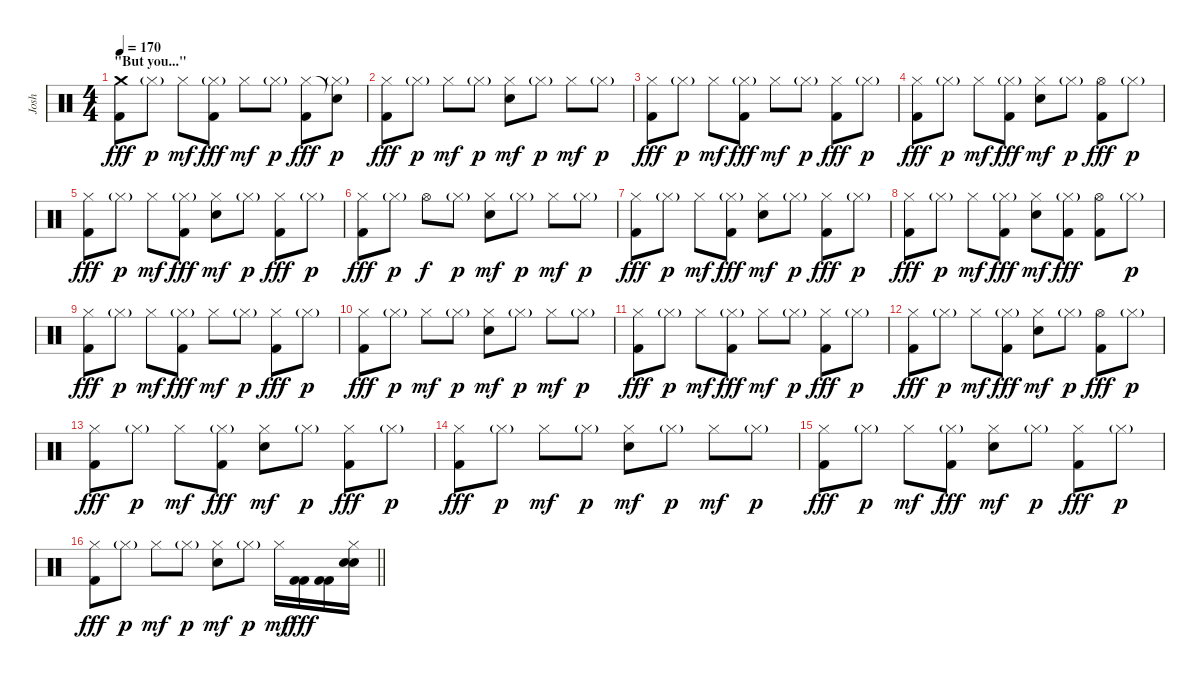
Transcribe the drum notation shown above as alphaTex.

\track ("Josh" "Josh") {instrument percussion}
\staff {score}
\articulation defaults
\ts (4 4)
\section ("" "\"But you...\"")
\tempo 170
\clef neutral
\ks c
("Crash medium (hit)" "Kick (hit) 2").8{dy fff} "Hi-Hat (closed)"{g}.8{dy p} "Hi-Hat (closed)".8{dy mf} ("Hi-Hat (closed)"{g} "Kick (hit) 2").8{dy fff} "Hi-Hat (closed)".8{dy mf} "Hi-Hat (closed)"{g}.8{dy p} ("Hi-Hat (closed)" "Kick (hit) 2").8{dy fff} ("Snare (hit)"{t} "Hi-Hat (closed)"{g}).8{dy p} |
("Hi-Hat (closed)" "Kick (hit) 2").8{dy fff} "Hi-Hat (closed)"{g}.8{dy p} "Hi-Hat (closed)".8{dy mf} "Hi-Hat (closed)"{g}.8{dy p} ("Hi-Hat (closed)" "Electric Snare (hit)").8{dy mf} "Hi-Hat (closed)"{g}.8{dy p} "Hi-Hat (closed)".8{dy mf} "Hi-Hat (closed)"{g}.8{dy p} |
("Hi-Hat (closed)" "Kick (hit) 2").8{dy fff} "Hi-Hat (closed)"{g}.8{dy p} "Hi-Hat (closed)".8{dy mf} ("Hi-Hat (closed)"{g} "Kick (hit) 2").8{dy fff} "Hi-Hat (closed)".8{dy mf} "Hi-Hat (closed)"{g}.8{dy p} ("Hi-Hat (closed)" "Kick (hit) 2").8{dy fff} "Hi-Hat (closed)"{g}.8{dy p} |
("Hi-Hat (closed)" "Kick (hit) 2").8{dy fff} "Hi-Hat (closed)"{g}.8{dy p} "Hi-Hat (closed)".8{dy mf} ("Hi-Hat (closed)"{g} "Kick (hit) 2").8{dy fff} ("Hi-Hat (closed)" "Electric Snare (hit)").8{dy mf} "Hi-Hat (closed)"{g}.8{dy p} ("Hi-Hat (open)" "Kick (hit) 2").8{dy fff} "Hi-Hat (closed)"{g}.8{dy p} |
("Hi-Hat (closed)" "Kick (hit) 2").8{dy fff} "Hi-Hat (closed)"{g}.8{dy p} "Hi-Hat (closed)".8{dy mf} ("Hi-Hat (closed)"{g} "Kick (hit) 2").8{dy fff} ("Hi-Hat (closed)" "Electric Snare (hit)").8{dy mf} "Hi-Hat (closed)"{g}.8{dy p} ("Hi-Hat (closed)" "Kick (hit) 2").8{dy fff} "Hi-Hat (closed)"{g}.8{dy p} |
("Hi-Hat (closed)" "Kick (hit) 2").8{dy fff} "Hi-Hat (closed)"{g}.8{dy p} "Hi-Hat (open)".8{dy f} "Hi-Hat (closed)"{g}.8{dy p} ("Hi-Hat (closed)" "Electric Snare (hit)").8{dy mf} "Hi-Hat (closed)"{g}.8{dy p} "Hi-Hat (closed)".8{dy mf} "Hi-Hat (closed)"{g}.8{dy p} |
("Hi-Hat (closed)" "Kick (hit) 2").8{dy fff} "Hi-Hat (closed)"{g}.8{dy p} "Hi-Hat (closed)".8{dy mf} ("Hi-Hat (closed)"{g} "Kick (hit) 2").8{dy fff} ("Hi-Hat (closed)" "Electric Snare (hit)").8{dy mf} "Hi-Hat (closed)"{g}.8{dy p} ("Hi-Hat (closed)" "Kick (hit) 2").8{dy fff} "Hi-Hat (closed)"{g}.8{dy p} |
("Hi-Hat (closed)" "Kick (hit) 2").8{dy fff} "Hi-Hat (closed)"{g}.8{dy p} "Hi-Hat (closed)".8{dy mf} ("Hi-Hat (closed)"{g} "Kick (hit) 2").8{dy fff} ("Hi-Hat (closed)" "Electric Snare (hit)").8{dy mf} ("Hi-Hat (closed)"{g} "Kick (hit) 2").8{dy fff} ("Hi-Hat (open)" "Kick (hit) 2").8 "Hi-Hat (closed)"{g}.8{dy p} |
("Hi-Hat (closed)" "Kick (hit) 2").8{dy fff} "Hi-Hat (closed)"{g}.8{dy p} "Hi-Hat (closed)".8{dy mf} ("Hi-Hat (closed)"{g} "Kick (hit) 2").8{dy fff} "Hi-Hat (closed)".8{dy mf} "Hi-Hat (closed)"{g}.8{dy p} ("Hi-Hat (closed)" "Kick (hit) 2").8{dy fff} "Hi-Hat (closed)"{g}.8{dy p} |
("Hi-Hat (closed)" "Kick (hit) 2").8{dy fff} "Hi-Hat (closed)"{g}.8{dy p} "Hi-Hat (closed)".8{dy mf} "Hi-Hat (closed)"{g}.8{dy p} ("Hi-Hat (closed)" "Electric Snare (hit)").8{dy mf} "Hi-Hat (closed)"{g}.8{dy p} "Hi-Hat (closed)".8{dy mf} "Hi-Hat (closed)"{g}.8{dy p} |
("Hi-Hat (closed)" "Kick (hit) 2").8{dy fff} "Hi-Hat (closed)"{g}.8{dy p} "Hi-Hat (closed)".8{dy mf} ("Hi-Hat (closed)"{g} "Kick (hit) 2").8{dy fff} "Hi-Hat (closed)".8{dy mf} "Hi-Hat (closed)"{g}.8{dy p} ("Hi-Hat (closed)" "Kick (hit) 2").8{dy fff} "Hi-Hat (closed)"{g}.8{dy p} |
("Hi-Hat (closed)" "Kick (hit) 2").8{dy fff} "Hi-Hat (closed)"{g}.8{dy p} "Hi-Hat (closed)".8{dy mf} ("Hi-Hat (closed)"{g} "Kick (hit) 2").8{dy fff} ("Hi-Hat (closed)" "Electric Snare (hit)").8{dy mf} "Hi-Hat (closed)"{g}.8{dy p} ("Hi-Hat (open)" "Kick (hit) 2").8{dy fff} "Hi-Hat (closed)"{g}.8{dy p} |
("Hi-Hat (closed)" "Kick (hit) 2").8{dy fff} "Hi-Hat (closed)"{g}.8{dy p} "Hi-Hat (closed)".8{dy mf} ("Hi-Hat (closed)"{g} "Kick (hit) 2").8{dy fff} ("Hi-Hat (closed)" "Electric Snare (hit)").8{dy mf} "Hi-Hat (closed)"{g}.8{dy p} ("Hi-Hat (closed)" "Kick (hit) 2").8{dy fff} "Hi-Hat (closed)"{g}.8{dy p} |
("Hi-Hat (closed)" "Kick (hit) 2").8{dy fff} "Hi-Hat (closed)"{g}.8{dy p} "Hi-Hat (closed)".8{dy mf} "Hi-Hat (closed)"{g}.8{dy p} ("Hi-Hat (closed)" "Electric Snare (hit)").8{dy mf} "Hi-Hat (closed)"{g}.8{dy p} "Hi-Hat (closed)".8{dy mf} "Hi-Hat (closed)"{g}.8{dy p} |
("Hi-Hat (closed)" "Kick (hit) 2").8{dy fff} "Hi-Hat (closed)"{g}.8{dy p} "Hi-Hat (closed)".8{dy mf} ("Hi-Hat (closed)"{g} "Kick (hit) 2").8{dy fff} ("Hi-Hat (closed)" "Electric Snare (hit)").8{dy mf} "Hi-Hat (closed)"{g}.8{dy p} ("Hi-Hat (closed)" "Kick (hit) 2").8{dy fff} "Hi-Hat (closed)"{g}.8{dy p} |
\barLineRight lightlight
("Hi-Hat (closed)" "Kick (hit) 2").8{dy fff} "Hi-Hat (closed)"{g}.8{dy p} "Hi-Hat (closed)".8{dy mf} "Hi-Hat (closed)"{g}.8{dy p} ("Hi-Hat (closed)" "Electric Snare (hit)").8{dy mf} "Hi-Hat (closed)"{g}.8{dy p} "Hi-Hat (closed)".16{dy mf} ("Kick (hit) 2" "Kick (hit) 2").16{dy fff} ("Kick (hit) 2" "Kick (hit) 2").16 ("Hi-Hat (closed)" "Electric Snare (hit)" "Electric Snare (hit)").16
